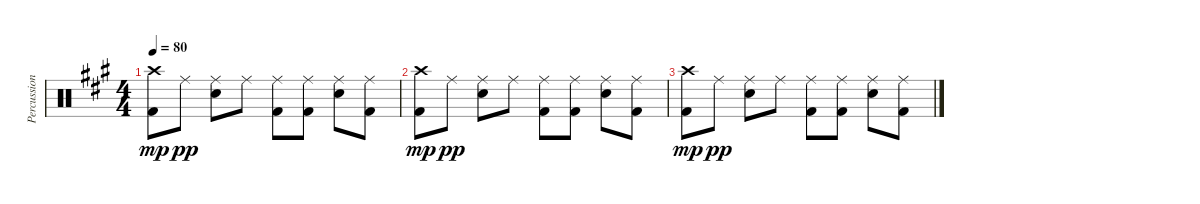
\track ("Percussion" "Percussion") {instrument percussion}
\staff {score}
\articulation defaults
\ts (4 4)
\tempo 80
\clef neutral
\ks a
("Crash high (hit)" "Kick (hit) 2").8{dy mp} "Ride (middle)".8{dy pp} ("Ride (middle)" "Electric Snare (hit)").8 "Ride (middle)".8 ("Ride (middle)" "Kick (hit) 2").8 ("Ride (middle)" "Kick (hit) 2").8 ("Ride (middle)" "Electric Snare (hit)").8 ("Ride (middle)" "Kick (hit) 2").8 |
("Crash high (hit)" "Kick (hit) 2").8{dy mp} "Ride (middle)".8{dy pp} ("Ride (middle)" "Electric Snare (hit)").8 "Ride (middle)".8 ("Ride (middle)" "Kick (hit) 2").8 ("Ride (middle)" "Kick (hit) 2").8 ("Ride (middle)" "Electric Snare (hit)").8 ("Ride (middle)" "Kick (hit) 2").8 |
("Crash high (hit)" "Kick (hit) 2").8{dy mp} "Ride (middle)".8{dy pp} ("Ride (middle)" "Electric Snare (hit)").8 "Ride (middle)".8 ("Ride (middle)" "Kick (hit) 2").8 ("Ride (middle)" "Kick (hit) 2").8 ("Ride (middle)" "Electric Snare (hit)").8 ("Ride (middle)" "Kick (hit) 2").8
